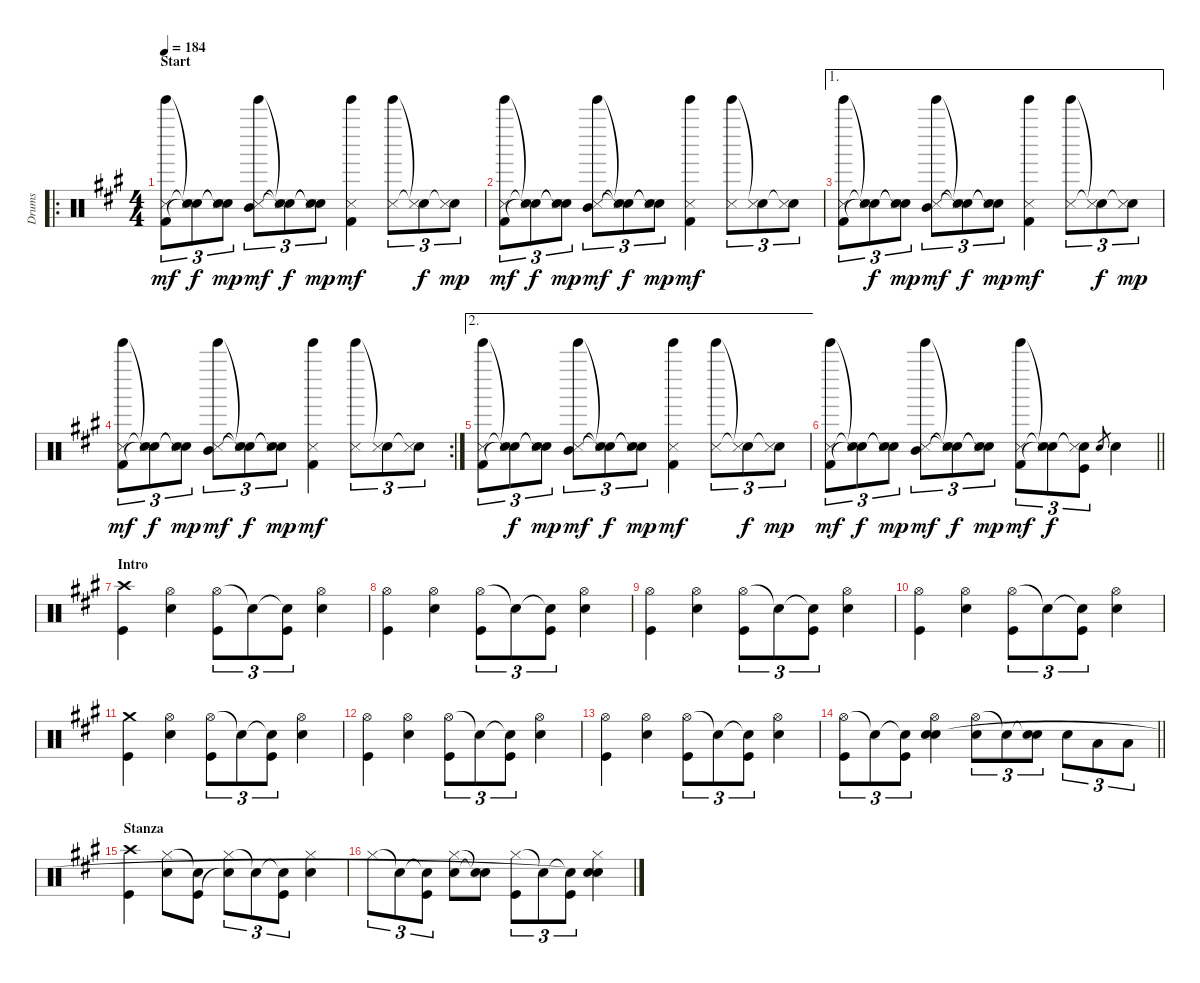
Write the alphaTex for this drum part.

\track ("Drums" "Drums") {instrument percussion}
\staff {score}
\articulation defaults
\ro
\ts (4 4)
\section ("" "Start")
\tempo 184
\clef neutral
\ks f#minor
("Tinkle Bell (hit)" "Metronome (hit)" "Kick (hit) 2").8{tu (3 2) dy mf} ("Snare (hit)"{t} "Metronome (hit)"{t} "Snare (hit)"{t}).8{tu (3 2) dy f} ("Snare (hit)"{t} "Metronome (hit)" "Snare (hit)"{t}).8{tu (3 2) dy mp} ("Tinkle Bell (hit)" "Metronome (hit)" "Mid Tom (hit)").8{tu (3 2) dy mf} ("Snare (hit)"{t} "Metronome (hit)"{t} "Snare (hit)"{t}).8{tu (3 2) dy f} ("Snare (hit)"{t} "Metronome (hit)" "Snare (hit)"{t}).8{tu (3 2) dy mp} ("Tinkle Bell (hit)" "Metronome (hit)" "Kick (hit) 2").4{dy mf} ("Tinkle Bell (hit)" "Metronome (hit)").8{tu (3 2)} ("Snare (hit)"{t} "Metronome (hit)"{t}).8{tu (3 2) dy f} ("Snare (hit)"{t} "Metronome (hit)").8{tu (3 2) dy mp} |
("Tinkle Bell (hit)" "Metronome (hit)" "Kick (hit) 2").8{tu (3 2) dy mf} ("Snare (hit)"{t} "Metronome (hit)"{t} "Snare (hit)"{t}).8{tu (3 2) dy f} ("Snare (hit)"{t} "Metronome (hit)" "Snare (hit)"{t}).8{tu (3 2) dy mp} ("Tinkle Bell (hit)" "Metronome (hit)" "Mid Tom (hit)").8{tu (3 2) dy mf} ("Snare (hit)"{t} "Metronome (hit)"{t} "Snare (hit)"{t}).8{tu (3 2) dy f} ("Snare (hit)"{t} "Metronome (hit)" "Snare (hit)"{t}).8{tu (3 2) dy mp} ("Tinkle Bell (hit)" "Metronome (hit)" "Kick (hit) 2").4{dy mf} ("Tinkle Bell (hit)" "Metronome (hit)").8{tu (3 2)} ("Snare (hit)"{t} "Metronome (hit)").8{tu (3 2)} ("Snare (hit)"{t} "Metronome (hit)").8{tu (3 2)} |
\ae 1
("Tinkle Bell (hit)" "Metronome (hit)" "Kick (hit) 2").8{tu (3 2)} ("Snare (hit)"{t} "Metronome (hit)"{t} "Snare (hit)"{t}).8{tu (3 2) dy f} ("Snare (hit)"{t} "Metronome (hit)" "Snare (hit)"{t}).8{tu (3 2) dy mp} ("Tinkle Bell (hit)" "Metronome (hit)" "Mid Tom (hit)").8{tu (3 2) dy mf} ("Snare (hit)"{t} "Metronome (hit)"{t} "Snare (hit)"{t}).8{tu (3 2) dy f} ("Snare (hit)"{t} "Metronome (hit)" "Snare (hit)"{t}).8{tu (3 2) dy mp} ("Tinkle Bell (hit)" "Metronome (hit)" "Kick (hit) 2").4{dy mf} ("Tinkle Bell (hit)" "Metronome (hit)").8{tu (3 2)} ("Snare (hit)"{t} "Metronome (hit)"{t}).8{tu (3 2) dy f} ("Snare (hit)"{t} "Metronome (hit)").8{tu (3 2) dy mp} |
\rc 2
("Tinkle Bell (hit)" "Metronome (hit)" "Kick (hit) 2").8{tu (3 2) dy mf} ("Snare (hit)"{t} "Metronome (hit)"{t} "Snare (hit)"{t}).8{tu (3 2) dy f} ("Snare (hit)"{t} "Metronome (hit)" "Snare (hit)"{t}).8{tu (3 2) dy mp} ("Tinkle Bell (hit)" "Metronome (hit)" "Mid Tom (hit)").8{tu (3 2) dy mf} ("Snare (hit)"{t} "Metronome (hit)"{t} "Snare (hit)"{t}).8{tu (3 2) dy f} ("Snare (hit)"{t} "Metronome (hit)" "Snare (hit)"{t}).8{tu (3 2) dy mp} ("Tinkle Bell (hit)" "Metronome (hit)" "Kick (hit) 2").4{dy mf} ("Tinkle Bell (hit)" "Metronome (hit)").8{tu (3 2)} ("Snare (hit)"{t} "Metronome (hit)").8{tu (3 2)} ("Snare (hit)"{t} "Metronome (hit)").8{tu (3 2)} |
\ae 2
("Tinkle Bell (hit)" "Metronome (hit)" "Kick (hit) 2").8{tu (3 2)} ("Snare (hit)"{t} "Metronome (hit)"{t} "Snare (hit)"{t}).8{tu (3 2) dy f} ("Snare (hit)"{t} "Metronome (hit)" "Snare (hit)"{t}).8{tu (3 2) dy mp} ("Tinkle Bell (hit)" "Metronome (hit)" "Mid Tom (hit)").8{tu (3 2) dy mf} ("Snare (hit)"{t} "Metronome (hit)"{t} "Snare (hit)"{t}).8{tu (3 2) dy f} ("Snare (hit)"{t} "Metronome (hit)" "Snare (hit)"{t}).8{tu (3 2) dy mp} ("Tinkle Bell (hit)" "Metronome (hit)" "Kick (hit) 2").4{dy mf} ("Tinkle Bell (hit)" "Metronome (hit)").8{tu (3 2)} ("Snare (hit)"{t} "Metronome (hit)"{t}).8{tu (3 2) dy f} ("Snare (hit)"{t} "Metronome (hit)").8{tu (3 2) dy mp} |
\barLineRight lightlight
("Tinkle Bell (hit)" "Metronome (hit)" "Kick (hit) 2").8{tu (3 2) dy mf} ("Snare (hit)"{t} "Metronome (hit)"{t} "Snare (hit)"{t}).8{tu (3 2) dy f} ("Snare (hit)"{t} "Metronome (hit)" "Snare (hit)"{t}).8{tu (3 2) dy mp} ("Tinkle Bell (hit)" "Metronome (hit)" "Mid Tom (hit)").8{tu (3 2) dy mf} ("Snare (hit)"{t} "Metronome (hit)"{t} "Snare (hit)"{t}).8{tu (3 2) dy f} ("Snare (hit)"{t} "Metronome (hit)" "Snare (hit)"{t}).8{tu (3 2) dy mp} ("Tinkle Bell (hit)" "Metronome (hit)" "Kick (hit) 2").8{tu (3 2) dy mf} ("Snare (hit)"{t} "Metronome (hit)"{t} "Snare (hit)"{t}).8{tu (3 2) dy f} ("Snare (hit)"{t} "Metronome (hit)"{t} "Kick (hit)").8{tu (3 2)} "Electric Snare (hit)".8{gr} "Electric Snare (hit)".4 |
\section ("" "Intro")
("Crash high (hit)" "Kick (hit)").4 ("Hi-Hat (open)" "Electric Snare (hit)").4 ("Hi-Hat (open)" "Kick (hit)").8{tu (3 2)} "Snare (hit)"{t}.8{tu (3 2)} ("Snare (hit)"{t} "Kick (hit)").8{tu (3 2)} ("Hi-Hat (open)" "Electric Snare (hit)").4 |
("Hi-Hat (open)" "Kick (hit)").4 ("Hi-Hat (open)" "Electric Snare (hit)").4 ("Hi-Hat (open)" "Kick (hit)").8{tu (3 2)} "Snare (hit)"{t}.8{tu (3 2)} ("Snare (hit)"{t} "Kick (hit)").8{tu (3 2)} ("Hi-Hat (open)" "Electric Snare (hit)").4 |
("Hi-Hat (open)" "Kick (hit)").4 ("Hi-Hat (open)" "Electric Snare (hit)").4 ("Hi-Hat (open)" "Kick (hit)").8{tu (3 2)} "Snare (hit)"{t}.8{tu (3 2)} ("Snare (hit)"{t} "Kick (hit)").8{tu (3 2)} ("Hi-Hat (open)" "Electric Snare (hit)").4 |
("Hi-Hat (open)" "Kick (hit)").4 ("Hi-Hat (open)" "Electric Snare (hit)").4 ("Hi-Hat (open)" "Kick (hit)").8{tu (3 2)} "Snare (hit)"{t}.8{tu (3 2)} ("Snare (hit)"{t} "Kick (hit)").8{tu (3 2)} ("Hi-Hat (open)" "Electric Snare (hit)").4 |
("Crash medium (hit)" "Kick (hit)").4 ("Hi-Hat (open)" "Electric Snare (hit)").4 ("Hi-Hat (open)" "Kick (hit)").8{tu (3 2)} "Snare (hit)"{t}.8{tu (3 2)} ("Snare (hit)"{t} "Kick (hit)").8{tu (3 2)} ("Hi-Hat (open)" "Electric Snare (hit)").4 |
("Hi-Hat (open)" "Kick (hit)").4 ("Hi-Hat (open)" "Electric Snare (hit)").4 ("Hi-Hat (open)" "Kick (hit)").8{tu (3 2)} "Snare (hit)"{t}.8{tu (3 2)} ("Snare (hit)"{t} "Kick (hit)").8{tu (3 2)} ("Hi-Hat (open)" "Electric Snare (hit)").4 |
("Hi-Hat (open)" "Kick (hit)").4 ("Hi-Hat (open)" "Electric Snare (hit)").4 ("Hi-Hat (open)" "Kick (hit)").8{tu (3 2)} "Snare (hit)"{t}.8{tu (3 2)} ("Snare (hit)"{t} "Kick (hit)").8{tu (3 2)} ("Hi-Hat (open)" "Electric Snare (hit)").4 |
\barLineRight lightlight
("Hi-Hat (open)" "Kick (hit)").8{tu (3 2)} "Snare (hit)"{t}.8{tu (3 2)} ("Snare (hit)"{t} "Kick (hit)").8{tu (3 2)} ("Hi-Hat (open)" "Electric Snare (hit)" "Snare (hit)").4 ("Hi-Hat (open)" "Electric Snare (hit)").8{tu (3 2)} "Snare (hit)"{t}.8{tu (3 2)} ("Snare (hit)"{t} "Electric Snare (hit)").8{tu (3 2)} "Electric Snare (hit)".8{tu (3 2)} "Low Tom (hit)".8{tu (3 2)} "Low Tom (hit)".8{tu (3 2)} |
\section ("" "Stanza")
("Crash high (hit)" "Kick (hit)").4 ("Hi-Hat (closed)" "Electric Snare (hit)").8 ("Snare (hit)"{t} "Kick (hit)").8 ("Hi-Hat (closed)" "Snare (hit)"{t}).8{tu (3 2)} "Snare (hit)"{t}.8{tu (3 2)} ("Snare (hit)"{t} "Kick (hit)").8{tu (3 2)} ("Hi-Hat (closed)" "Electric Snare (hit)").4 |
"Hi-Hat (closed)".8{tu (3 2)} "Snare (hit)"{t}.8{tu (3 2)} ("Snare (hit)"{t} "Kick (hit)").8{tu (3 2)} ("Hi-Hat (closed)" "Electric Snare (hit)").8 ("Snare (hit)"{t} "Snare (hit)"{t}).8 ("Hi-Hat (closed)" "Kick (hit)").8{tu (3 2)} "Snare (hit)"{t}.8{tu (3 2)} ("Snare (hit)"{t} "Kick (hit)").8{tu (3 2)} ("Hi-Hat (closed)" "Electric Snare (hit)" "Snare (hit)"{t}).4
